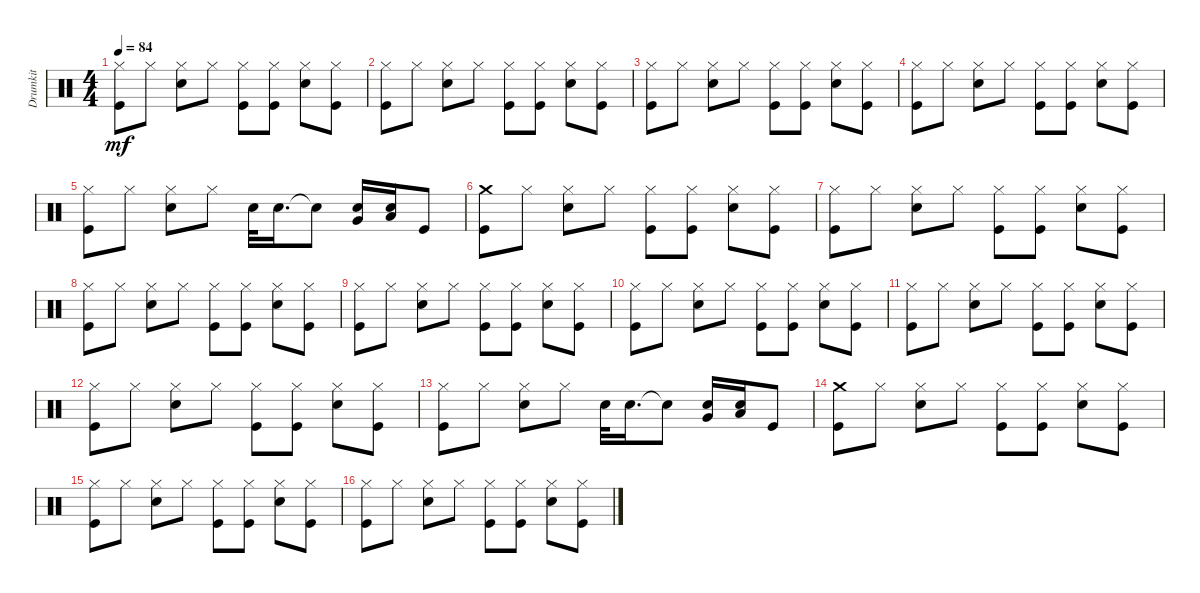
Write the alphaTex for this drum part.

\track ("Drumkit" "Drumkit") {instrument percussion}
\staff {score}
\articulation defaults
\ts (4 4)
\tempo 84
\clef neutral
\ks c
("Kick (hit)" "Hi-Hat (closed)").8{dy mf} "Hi-Hat (closed)".8 ("Snare (hit) 2" "Hi-Hat (closed)").8 "Hi-Hat (closed)".8 ("Kick (hit)" "Hi-Hat (closed)").8 ("Kick (hit)" "Hi-Hat (closed)").8 ("Snare (hit) 2" "Hi-Hat (closed)").8 ("Kick (hit)" "Hi-Hat (closed)").8 |
("Kick (hit)" "Hi-Hat (closed)").8 "Hi-Hat (closed)".8 ("Snare (hit) 2" "Hi-Hat (closed)").8 "Hi-Hat (closed)".8 ("Kick (hit)" "Hi-Hat (closed)").8 ("Kick (hit)" "Hi-Hat (closed)").8 ("Snare (hit) 2" "Hi-Hat (closed)").8 ("Kick (hit)" "Hi-Hat (closed)").8 |
("Kick (hit)" "Hi-Hat (closed)").8 "Hi-Hat (closed)".8 ("Snare (hit) 2" "Hi-Hat (closed)").8 "Hi-Hat (closed)".8 ("Kick (hit)" "Hi-Hat (closed)").8 ("Kick (hit)" "Hi-Hat (closed)").8 ("Snare (hit) 2" "Hi-Hat (closed)").8 ("Kick (hit)" "Hi-Hat (closed)").8 |
("Kick (hit)" "Hi-Hat (closed)").8 "Hi-Hat (closed)".8 ("Snare (hit) 2" "Hi-Hat (closed)").8 "Hi-Hat (closed)".8 ("Kick (hit)" "Hi-Hat (closed)").8 ("Kick (hit)" "Hi-Hat (closed)").8 ("Snare (hit) 2" "Hi-Hat (closed)").8 ("Kick (hit)" "Hi-Hat (closed)").8 |
("Kick (hit)" "Hi-Hat (closed)").8 "Hi-Hat (closed)".8 ("Snare (hit) 2" "Hi-Hat (closed)").8 "Hi-Hat (closed)".8 "Snare (hit) 2".32 "Snare (hit) 2".16{d} "Snare (hit) 2"{t}.8 ("Snare (hit) 2" "Very Low Tom (hit)").16 ("Snare (hit) 2" "Low Tom (hit)").16 "Kick (hit)".8 |
("Kick (hit)" "Crash medium (hit)").8 "Hi-Hat (closed)".8 ("Snare (hit) 2" "Hi-Hat (closed)").8 "Hi-Hat (closed)".8 ("Kick (hit)" "Hi-Hat (closed)").8 ("Kick (hit)" "Hi-Hat (closed)").8 ("Snare (hit) 2" "Hi-Hat (closed)").8 ("Kick (hit)" "Hi-Hat (closed)").8 |
("Kick (hit)" "Hi-Hat (closed)").8 "Hi-Hat (closed)".8 ("Snare (hit) 2" "Hi-Hat (closed)").8 "Hi-Hat (closed)".8 ("Kick (hit)" "Hi-Hat (closed)").8 ("Kick (hit)" "Hi-Hat (closed)").8 ("Snare (hit) 2" "Hi-Hat (closed)").8 ("Kick (hit)" "Hi-Hat (closed)").8 |
("Kick (hit)" "Hi-Hat (closed)").8 "Hi-Hat (closed)".8 ("Snare (hit) 2" "Hi-Hat (closed)").8 "Hi-Hat (closed)".8 ("Kick (hit)" "Hi-Hat (closed)").8 ("Kick (hit)" "Hi-Hat (closed)").8 ("Snare (hit) 2" "Hi-Hat (closed)").8 ("Kick (hit)" "Hi-Hat (closed)").8 |
("Kick (hit)" "Hi-Hat (closed)").8 "Hi-Hat (closed)".8 ("Snare (hit) 2" "Hi-Hat (closed)").8 "Hi-Hat (closed)".8 ("Kick (hit)" "Hi-Hat (closed)").8 ("Kick (hit)" "Hi-Hat (closed)").8 ("Snare (hit) 2" "Hi-Hat (closed)").8 ("Kick (hit)" "Hi-Hat (closed)").8 |
("Kick (hit)" "Hi-Hat (closed)").8 "Hi-Hat (closed)".8 ("Snare (hit) 2" "Hi-Hat (closed)").8 "Hi-Hat (closed)".8 ("Kick (hit)" "Hi-Hat (closed)").8 ("Kick (hit)" "Hi-Hat (closed)").8 ("Snare (hit) 2" "Hi-Hat (closed)").8 ("Kick (hit)" "Hi-Hat (closed)").8 |
("Kick (hit)" "Hi-Hat (closed)").8 "Hi-Hat (closed)".8 ("Snare (hit) 2" "Hi-Hat (closed)").8 "Hi-Hat (closed)".8 ("Kick (hit)" "Hi-Hat (closed)").8 ("Kick (hit)" "Hi-Hat (closed)").8 ("Snare (hit) 2" "Hi-Hat (closed)").8 ("Kick (hit)" "Hi-Hat (closed)").8 |
("Kick (hit)" "Hi-Hat (closed)").8 "Hi-Hat (closed)".8 ("Snare (hit) 2" "Hi-Hat (closed)").8 "Hi-Hat (closed)".8 ("Kick (hit)" "Hi-Hat (closed)").8 ("Kick (hit)" "Hi-Hat (closed)").8 ("Snare (hit) 2" "Hi-Hat (closed)").8 ("Kick (hit)" "Hi-Hat (closed)").8 |
("Kick (hit)" "Hi-Hat (closed)").8 "Hi-Hat (closed)".8 ("Snare (hit) 2" "Hi-Hat (closed)").8 "Hi-Hat (closed)".8 "Snare (hit) 2".32 "Snare (hit) 2".16{d} "Snare (hit) 2"{t}.8 ("Snare (hit) 2" "Very Low Tom (hit)").16 ("Snare (hit) 2" "Low Tom (hit)").16 "Kick (hit)".8 |
("Kick (hit)" "Crash medium (hit)").8 "Hi-Hat (closed)".8 ("Snare (hit) 2" "Hi-Hat (closed)").8 "Hi-Hat (closed)".8 ("Kick (hit)" "Hi-Hat (closed)").8 ("Kick (hit)" "Hi-Hat (closed)").8 ("Snare (hit) 2" "Hi-Hat (closed)").8 ("Kick (hit)" "Hi-Hat (closed)").8 |
("Kick (hit)" "Hi-Hat (closed)").8 "Hi-Hat (closed)".8 ("Snare (hit) 2" "Hi-Hat (closed)").8 "Hi-Hat (closed)".8 ("Kick (hit)" "Hi-Hat (closed)").8 ("Kick (hit)" "Hi-Hat (closed)").8 ("Snare (hit) 2" "Hi-Hat (closed)").8 ("Kick (hit)" "Hi-Hat (closed)").8 |
("Kick (hit)" "Hi-Hat (closed)").8 "Hi-Hat (closed)".8 ("Snare (hit) 2" "Hi-Hat (closed)").8 "Hi-Hat (closed)".8 ("Kick (hit)" "Hi-Hat (closed)").8 ("Kick (hit)" "Hi-Hat (closed)").8 ("Snare (hit) 2" "Hi-Hat (closed)").8 ("Kick (hit)" "Hi-Hat (closed)").8
